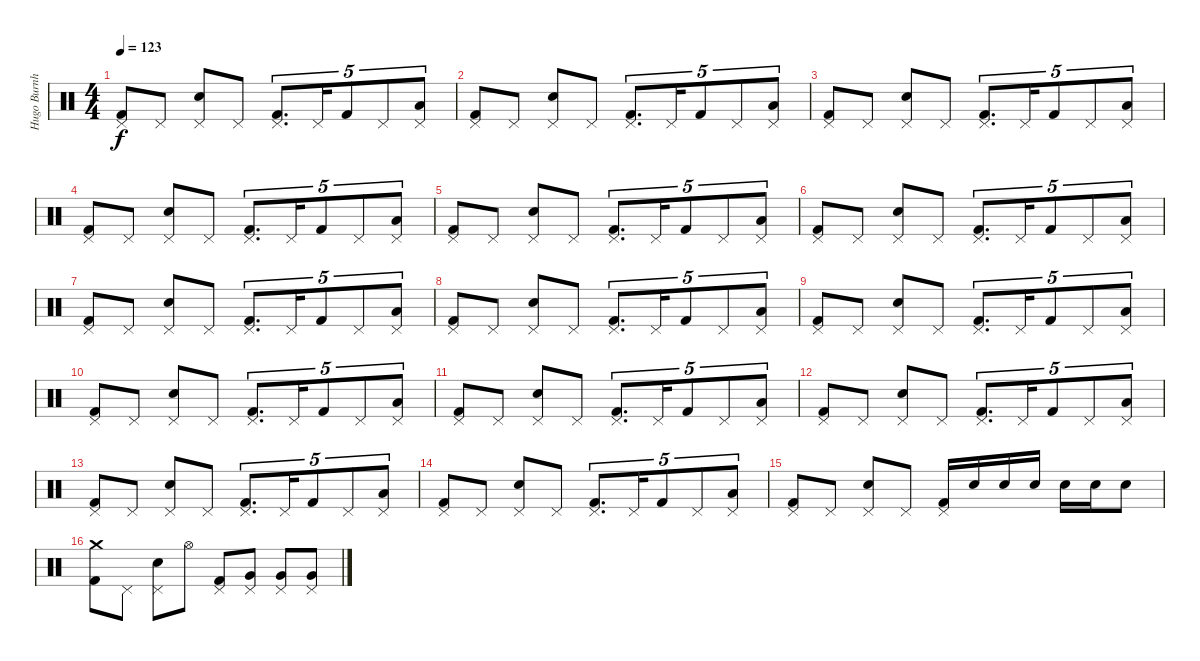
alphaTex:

\track ("Hugo Burnham" "Hugo Burnh") {instrument percussion}
\staff {score}
\articulation defaults
\ts (4 4)
\tempo 123
\clef neutral
\ks c
("Pedal Hi-Hat (hit)" "Kick (hit) 2").8{dy f} "Pedal Hi-Hat (hit)".8 ("Pedal Hi-Hat (hit)" "Electric Snare (hit)").8 "Pedal Hi-Hat (hit)".8 ("Pedal Hi-Hat (hit)" "Kick (hit) 2").8{d tu (5 4)} "Pedal Hi-Hat (hit)".16{tu (5 4)} "Kick (hit) 2".8{tu (5 4)} "Pedal Hi-Hat (hit)".8{tu (5 4)} ("Pedal Hi-Hat (hit)" "Low Floor Tom (hit)").8{tu (5 4)} |
("Pedal Hi-Hat (hit)" "Kick (hit) 2").8 "Pedal Hi-Hat (hit)".8 ("Pedal Hi-Hat (hit)" "Electric Snare (hit)").8 "Pedal Hi-Hat (hit)".8 ("Pedal Hi-Hat (hit)" "Kick (hit) 2").8{d tu (5 4)} "Pedal Hi-Hat (hit)".16{tu (5 4)} "Kick (hit) 2".8{tu (5 4)} "Pedal Hi-Hat (hit)".8{tu (5 4)} ("Pedal Hi-Hat (hit)" "Low Floor Tom (hit)").8{tu (5 4)} |
("Pedal Hi-Hat (hit)" "Kick (hit) 2").8 "Pedal Hi-Hat (hit)".8 ("Pedal Hi-Hat (hit)" "Electric Snare (hit)").8 "Pedal Hi-Hat (hit)".8 ("Pedal Hi-Hat (hit)" "Kick (hit) 2").8{d tu (5 4)} "Pedal Hi-Hat (hit)".16{tu (5 4)} "Kick (hit) 2".8{tu (5 4)} "Pedal Hi-Hat (hit)".8{tu (5 4)} ("Pedal Hi-Hat (hit)" "Low Floor Tom (hit)").8{tu (5 4)} |
("Pedal Hi-Hat (hit)" "Kick (hit) 2").8 "Pedal Hi-Hat (hit)".8 ("Pedal Hi-Hat (hit)" "Electric Snare (hit)").8 "Pedal Hi-Hat (hit)".8 ("Pedal Hi-Hat (hit)" "Kick (hit) 2").8{d tu (5 4)} "Pedal Hi-Hat (hit)".16{tu (5 4)} "Kick (hit) 2".8{tu (5 4)} "Pedal Hi-Hat (hit)".8{tu (5 4)} ("Pedal Hi-Hat (hit)" "Low Floor Tom (hit)").8{tu (5 4)} |
("Pedal Hi-Hat (hit)" "Kick (hit) 2").8 "Pedal Hi-Hat (hit)".8 ("Pedal Hi-Hat (hit)" "Electric Snare (hit)").8 "Pedal Hi-Hat (hit)".8 ("Pedal Hi-Hat (hit)" "Kick (hit) 2").8{d tu (5 4)} "Pedal Hi-Hat (hit)".16{tu (5 4)} "Kick (hit) 2".8{tu (5 4)} "Pedal Hi-Hat (hit)".8{tu (5 4)} ("Pedal Hi-Hat (hit)" "Low Floor Tom (hit)").8{tu (5 4)} |
("Pedal Hi-Hat (hit)" "Kick (hit) 2").8 "Pedal Hi-Hat (hit)".8 ("Pedal Hi-Hat (hit)" "Electric Snare (hit)").8 "Pedal Hi-Hat (hit)".8 ("Pedal Hi-Hat (hit)" "Kick (hit) 2").8{d tu (5 4)} "Pedal Hi-Hat (hit)".16{tu (5 4)} "Kick (hit) 2".8{tu (5 4)} "Pedal Hi-Hat (hit)".8{tu (5 4)} ("Pedal Hi-Hat (hit)" "Low Floor Tom (hit)").8{tu (5 4)} |
("Pedal Hi-Hat (hit)" "Kick (hit) 2").8 "Pedal Hi-Hat (hit)".8 ("Pedal Hi-Hat (hit)" "Electric Snare (hit)").8 "Pedal Hi-Hat (hit)".8 ("Pedal Hi-Hat (hit)" "Kick (hit) 2").8{d tu (5 4)} "Pedal Hi-Hat (hit)".16{tu (5 4)} "Kick (hit) 2".8{tu (5 4)} "Pedal Hi-Hat (hit)".8{tu (5 4)} ("Pedal Hi-Hat (hit)" "Low Floor Tom (hit)").8{tu (5 4)} |
("Pedal Hi-Hat (hit)" "Kick (hit) 2").8 "Pedal Hi-Hat (hit)".8 ("Pedal Hi-Hat (hit)" "Electric Snare (hit)").8 "Pedal Hi-Hat (hit)".8 ("Pedal Hi-Hat (hit)" "Kick (hit) 2").8{d tu (5 4)} "Pedal Hi-Hat (hit)".16{tu (5 4)} "Kick (hit) 2".8{tu (5 4)} "Pedal Hi-Hat (hit)".8{tu (5 4)} ("Pedal Hi-Hat (hit)" "Low Floor Tom (hit)").8{tu (5 4)} |
("Pedal Hi-Hat (hit)" "Kick (hit) 2").8 "Pedal Hi-Hat (hit)".8 ("Pedal Hi-Hat (hit)" "Electric Snare (hit)").8 "Pedal Hi-Hat (hit)".8 ("Pedal Hi-Hat (hit)" "Kick (hit) 2").8{d tu (5 4)} "Pedal Hi-Hat (hit)".16{tu (5 4)} "Kick (hit) 2".8{tu (5 4)} "Pedal Hi-Hat (hit)".8{tu (5 4)} ("Pedal Hi-Hat (hit)" "Low Floor Tom (hit)").8{tu (5 4)} |
("Pedal Hi-Hat (hit)" "Kick (hit) 2").8 "Pedal Hi-Hat (hit)".8 ("Pedal Hi-Hat (hit)" "Electric Snare (hit)").8 "Pedal Hi-Hat (hit)".8 ("Pedal Hi-Hat (hit)" "Kick (hit) 2").8{d tu (5 4)} "Pedal Hi-Hat (hit)".16{tu (5 4)} "Kick (hit) 2".8{tu (5 4)} "Pedal Hi-Hat (hit)".8{tu (5 4)} ("Pedal Hi-Hat (hit)" "Low Floor Tom (hit)").8{tu (5 4)} |
("Pedal Hi-Hat (hit)" "Kick (hit) 2").8 "Pedal Hi-Hat (hit)".8 ("Pedal Hi-Hat (hit)" "Electric Snare (hit)").8 "Pedal Hi-Hat (hit)".8 ("Pedal Hi-Hat (hit)" "Kick (hit) 2").8{d tu (5 4)} "Pedal Hi-Hat (hit)".16{tu (5 4)} "Kick (hit) 2".8{tu (5 4)} "Pedal Hi-Hat (hit)".8{tu (5 4)} ("Pedal Hi-Hat (hit)" "Low Floor Tom (hit)").8{tu (5 4)} |
("Pedal Hi-Hat (hit)" "Kick (hit) 2").8 "Pedal Hi-Hat (hit)".8 ("Pedal Hi-Hat (hit)" "Electric Snare (hit)").8 "Pedal Hi-Hat (hit)".8 ("Pedal Hi-Hat (hit)" "Kick (hit) 2").8{d tu (5 4)} "Pedal Hi-Hat (hit)".16{tu (5 4)} "Kick (hit) 2".8{tu (5 4)} "Pedal Hi-Hat (hit)".8{tu (5 4)} ("Pedal Hi-Hat (hit)" "Low Floor Tom (hit)").8{tu (5 4)} |
("Pedal Hi-Hat (hit)" "Kick (hit) 2").8 "Pedal Hi-Hat (hit)".8 ("Pedal Hi-Hat (hit)" "Electric Snare (hit)").8 "Pedal Hi-Hat (hit)".8 ("Pedal Hi-Hat (hit)" "Kick (hit) 2").8{d tu (5 4)} "Pedal Hi-Hat (hit)".16{tu (5 4)} "Kick (hit) 2".8{tu (5 4)} "Pedal Hi-Hat (hit)".8{tu (5 4)} ("Pedal Hi-Hat (hit)" "Low Floor Tom (hit)").8{tu (5 4)} |
("Pedal Hi-Hat (hit)" "Kick (hit) 2").8 "Pedal Hi-Hat (hit)".8 ("Pedal Hi-Hat (hit)" "Electric Snare (hit)").8 "Pedal Hi-Hat (hit)".8 ("Pedal Hi-Hat (hit)" "Kick (hit) 2").8{d tu (5 4)} "Pedal Hi-Hat (hit)".16{tu (5 4)} "Kick (hit) 2".8{tu (5 4)} "Pedal Hi-Hat (hit)".8{tu (5 4)} ("Pedal Hi-Hat (hit)" "Low Floor Tom (hit)").8{tu (5 4)} |
("Pedal Hi-Hat (hit)" "Kick (hit) 2").8 "Pedal Hi-Hat (hit)".8 ("Pedal Hi-Hat (hit)" "Electric Snare (hit)").8 "Pedal Hi-Hat (hit)".8 ("Pedal Hi-Hat (hit)" "Kick (hit) 2").16 "Electric Snare (hit)".16 "Electric Snare (hit)".16 "Electric Snare (hit)".16 "Electric Snare (hit)".16 "Electric Snare (hit)".16 "Electric Snare (hit)".8 |
("Crash medium (hit)" "Kick (hit) 2").8 "Pedal Hi-Hat (hit)".8 ("Pedal Hi-Hat (hit)" "Electric Snare (hit)").8 "Hi-Hat (open)".8 ("Pedal Hi-Hat (hit)" "Kick (hit) 2").8 ("Pedal Hi-Hat (hit)" "Very Low Tom (hit)").8 ("Pedal Hi-Hat (hit)" "Very Low Tom (hit)").8 ("Pedal Hi-Hat (hit)" "Very Low Tom (hit)").8
